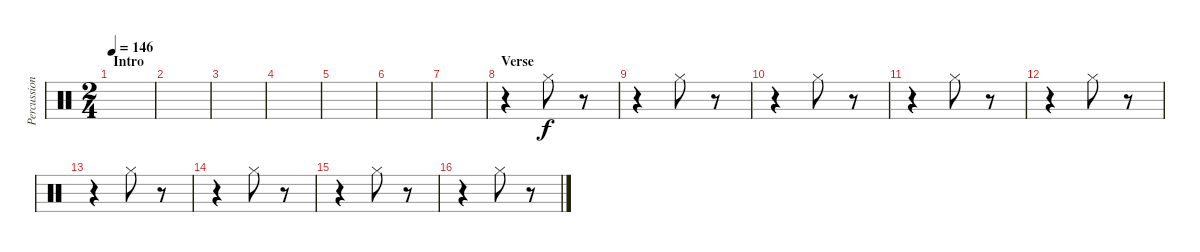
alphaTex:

\track ("Percussion" "Percussion") {instrument percussion}
\staff {score}
\articulation defaults
\ts (2 4)
\section ("" "Intro")
\tempo 146
\clef neutral
\ks c
|
|
|
|
|
|
|
\section ("" "Verse")
r.4 "Hi-Hat (closed)".8 r.8 |
r.4 "Hi-Hat (closed)".8 r.8 |
r.4 "Hi-Hat (closed)".8 r.8 |
r.4 "Hi-Hat (closed)".8 r.8 |
r.4 "Hi-Hat (closed)".8 r.8 |
r.4 "Hi-Hat (closed)".8 r.8 |
r.4 "Hi-Hat (closed)".8 r.8 |
r.4 "Hi-Hat (closed)".8 r.8 |
r.4 "Hi-Hat (closed)".8 r.8
